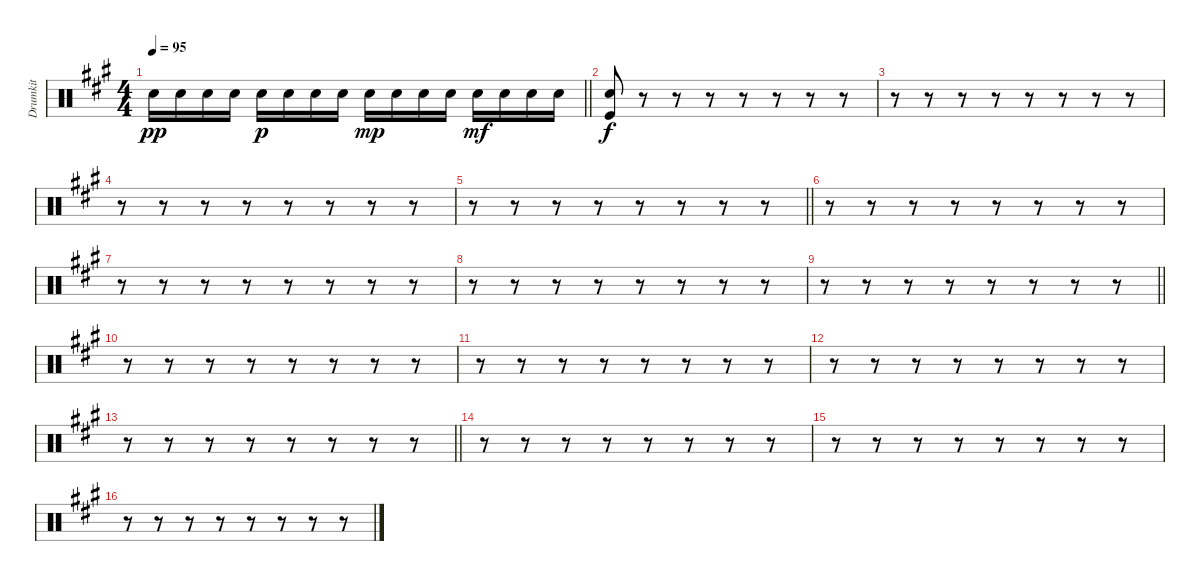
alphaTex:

\track ("Drumkit" "Drumkit") {instrument percussion}
\staff {score}
\articulation defaults
\ts (4 4)
\tempo 95
\clef neutral
\barLineRight lightlight
\ks a "Snare (hit) 2".16{dy pp} "Snare (hit) 2".16 "Snare (hit) 2".16 "Snare (hit) 2".16 "Snare (hit) 2".16{dy p} "Snare (hit) 2".16 "Snare (hit) 2".16 "Snare (hit) 2".16 "Snare (hit) 2".16{dy mp} "Snare (hit) 2".16 "Snare (hit) 2".16 "Snare (hit) 2".16 "Snare (hit) 2".16{dy mf} "Snare (hit) 2".16 "Snare (hit) 2".16 "Snare (hit) 2".16
|
("Snare (hit) 2" "Kick (hit)").8{dy f} r.8 r.8 r.8 r.8 r.8 r.8 r.8 |
r.8 r.8 r.8 r.8 r.8 r.8 r.8 r.8 |
r.8 r.8 r.8 r.8 r.8 r.8 r.8 r.8 |
\barLineRight lightlight
r.8 r.8 r.8 r.8 r.8 r.8 r.8 r.8 |
r.8 r.8 r.8 r.8 r.8 r.8 r.8 r.8 |
r.8 r.8 r.8 r.8 r.8 r.8 r.8 r.8 |
r.8 r.8 r.8 r.8 r.8 r.8 r.8 r.8 |
\barLineRight lightlight
r.8 r.8 r.8 r.8 r.8 r.8 r.8 r.8 |
r.8 r.8 r.8 r.8 r.8 r.8 r.8 r.8 |
r.8 r.8 r.8 r.8 r.8 r.8 r.8 r.8 |
r.8 r.8 r.8 r.8 r.8 r.8 r.8 r.8 |
\barLineRight lightlight
r.8 r.8 r.8 r.8 r.8 r.8 r.8 r.8 |
r.8 r.8 r.8 r.8 r.8 r.8 r.8 r.8 |
r.8 r.8 r.8 r.8 r.8 r.8 r.8 r.8 |
r.8 r.8 r.8 r.8 r.8 r.8 r.8 r.8
